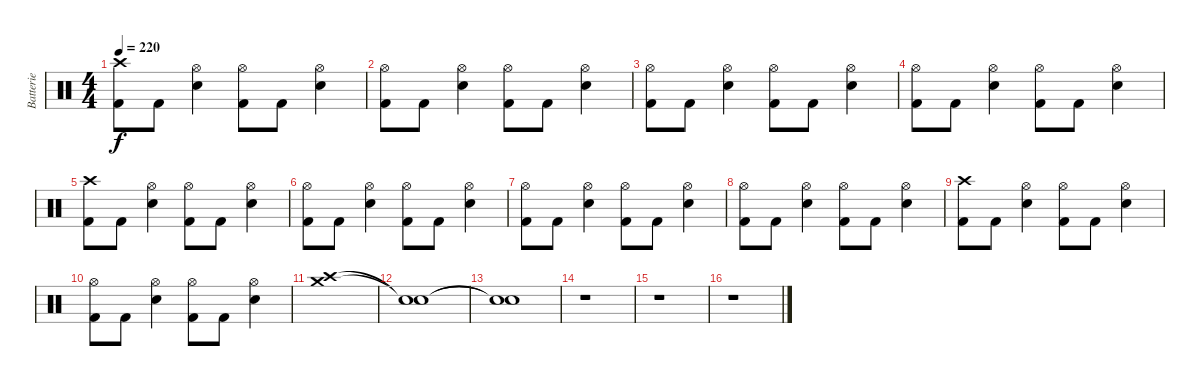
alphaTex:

\track ("Batterie" "Batterie") {instrument percussion}
\staff {score}
\articulation defaults
\ts (4 4)
\tempo 220
\clef neutral
\ks c
("Crash high (hit)" "Kick (hit) 2").8{dy f} "Kick (hit) 2".8 ("Hi-Hat (open)" "Electric Snare (hit)").4 ("Hi-Hat (open)" "Kick (hit) 2").8 "Kick (hit) 2".8 ("Hi-Hat (open)" "Electric Snare (hit)").4 |
("Hi-Hat (open)" "Kick (hit) 2").8 "Kick (hit) 2".8 ("Hi-Hat (open)" "Electric Snare (hit)").4 ("Hi-Hat (open)" "Kick (hit) 2").8 "Kick (hit) 2".8 ("Hi-Hat (open)" "Electric Snare (hit)").4 |
("Hi-Hat (open)" "Kick (hit) 2").8 "Kick (hit) 2".8 ("Hi-Hat (open)" "Electric Snare (hit)").4 ("Hi-Hat (open)" "Kick (hit) 2").8 "Kick (hit) 2".8 ("Hi-Hat (open)" "Electric Snare (hit)").4 |
("Hi-Hat (open)" "Kick (hit) 2").8 "Kick (hit) 2".8 ("Hi-Hat (open)" "Electric Snare (hit)").4 ("Hi-Hat (open)" "Kick (hit) 2").8 "Kick (hit) 2".8 ("Hi-Hat (open)" "Electric Snare (hit)").4 |
("Crash high (hit)" "Kick (hit) 2").8 "Kick (hit) 2".8 ("Hi-Hat (open)" "Electric Snare (hit)").4 ("Hi-Hat (open)" "Kick (hit) 2").8 "Kick (hit) 2".8 ("Hi-Hat (open)" "Electric Snare (hit)").4 |
("Hi-Hat (open)" "Kick (hit) 2").8 "Kick (hit) 2".8 ("Hi-Hat (open)" "Electric Snare (hit)").4 ("Hi-Hat (open)" "Kick (hit) 2").8 "Kick (hit) 2".8 ("Hi-Hat (open)" "Electric Snare (hit)").4 |
("Hi-Hat (open)" "Kick (hit) 2").8 "Kick (hit) 2".8 ("Hi-Hat (open)" "Electric Snare (hit)").4 ("Hi-Hat (open)" "Kick (hit) 2").8 "Kick (hit) 2".8 ("Hi-Hat (open)" "Electric Snare (hit)").4 |
("Hi-Hat (open)" "Kick (hit) 2").8 "Kick (hit) 2".8 ("Hi-Hat (open)" "Electric Snare (hit)").4 ("Hi-Hat (open)" "Kick (hit) 2").8 "Kick (hit) 2".8 ("Hi-Hat (open)" "Electric Snare (hit)").4 |
("Crash high (hit)" "Kick (hit) 2").8 "Kick (hit) 2".8 ("Hi-Hat (open)" "Electric Snare (hit)").4 ("Hi-Hat (open)" "Kick (hit) 2").8 "Kick (hit) 2".8 ("Hi-Hat (open)" "Electric Snare (hit)").4 |
("Hi-Hat (open)" "Kick (hit) 2").8 "Kick (hit) 2".8 ("Hi-Hat (open)" "Electric Snare (hit)").4 ("Hi-Hat (open)" "Kick (hit) 2").8 "Kick (hit) 2".8 ("Hi-Hat (open)" "Electric Snare (hit)").4 |
("Crash high (hit)" "Crash medium (hit)").1 |
("Snare (hit)"{t} "Snare (hit)"{t}).1 |
("Snare (hit)"{t} "Snare (hit)"{t}).1 |
r.1 |
r.1 |
r.1
